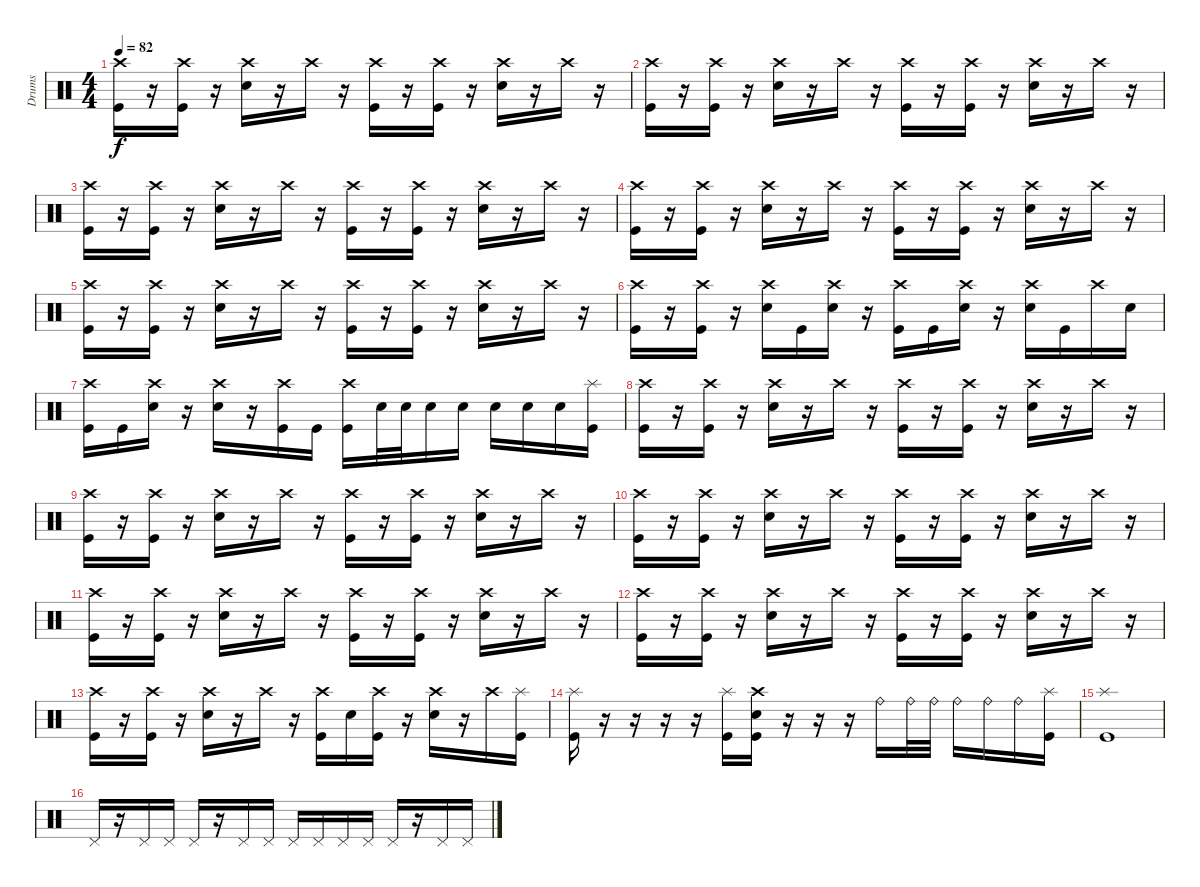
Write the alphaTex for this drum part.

\track ("Drums" "Drums") {instrument percussion}
\staff {score}
\articulation defaults
\ts (4 4)
\tempo 82
\clef neutral
\ks c
("Crash high (hit)" "Kick (hit)").16{dy f} r.16 ("Crash high (hit)" "Kick (hit)").16 r.16 ("Crash high (hit)" "Snare (hit) 2").16 r.16 "Crash high (hit)".16 r.16 ("Crash high (hit)" "Kick (hit)").16 r.16 ("Crash high (hit)" "Kick (hit)").16 r.16 ("Crash high (hit)" "Snare (hit) 2").16 r.16 "Crash high (hit)".16 r.16 |
("Crash high (hit)" "Kick (hit)").16 r.16 ("Crash high (hit)" "Kick (hit)").16 r.16 ("Crash high (hit)" "Snare (hit) 2").16 r.16 "Crash high (hit)".16 r.16 ("Crash high (hit)" "Kick (hit)").16 r.16 ("Crash high (hit)" "Kick (hit)").16 r.16 ("Crash high (hit)" "Snare (hit) 2").16 r.16 "Crash high (hit)".16 r.16 |
("Crash high (hit)" "Kick (hit)").16 r.16 ("Crash high (hit)" "Kick (hit)").16 r.16 ("Crash high (hit)" "Snare (hit) 2").16 r.16 "Crash high (hit)".16 r.16 ("Crash high (hit)" "Kick (hit)").16 r.16 ("Crash high (hit)" "Kick (hit)").16 r.16 ("Crash high (hit)" "Snare (hit) 2").16 r.16 "Crash high (hit)".16 r.16 |
("Crash high (hit)" "Kick (hit)").16 r.16 ("Crash high (hit)" "Kick (hit)").16 r.16 ("Crash high (hit)" "Snare (hit) 2").16 r.16 "Crash high (hit)".16 r.16 ("Crash high (hit)" "Kick (hit)").16 r.16 ("Crash high (hit)" "Kick (hit)").16 r.16 ("Crash high (hit)" "Snare (hit) 2").16 r.16 "Crash high (hit)".16 r.16 |
("Crash high (hit)" "Kick (hit)").16 r.16 ("Crash high (hit)" "Kick (hit)").16 r.16 ("Crash high (hit)" "Snare (hit) 2").16 r.16 "Crash high (hit)".16 r.16 ("Crash high (hit)" "Kick (hit)").16 r.16 ("Crash high (hit)" "Kick (hit)").16 r.16 ("Crash high (hit)" "Snare (hit) 2").16 r.16 "Crash high (hit)".16 r.16 |
("Crash high (hit)" "Kick (hit)").16 r.16 ("Crash high (hit)" "Kick (hit)").16 r.16 ("Crash high (hit)" "Snare (hit) 2").16 "Kick (hit)".16 ("Crash high (hit)" "Snare (hit) 2").16 r.16 ("Crash high (hit)" "Kick (hit)").16 "Kick (hit)".16 ("Crash high (hit)" "Snare (hit) 2").16 r.16 ("Crash high (hit)" "Snare (hit) 2").16 "Kick (hit)".16 "Crash high (hit)".16 "Snare (hit) 2".16 |
("Crash high (hit)" "Kick (hit)").16 "Kick (hit)".16 ("Crash high (hit)" "Snare (hit) 2").16 r.16 ("Crash high (hit)" "Snare (hit) 2").16 r.16 ("Crash high (hit)" "Kick (hit)").16 "Kick (hit)".16 ("Crash high (hit)" "Kick (hit)").16 "Snare (hit) 2".32 "Snare (hit) 2".32 "Snare (hit) 2".16 "Snare (hit) 2".16 "Snare (hit) 2".16 "Snare (hit) 2".16 "Snare (hit) 2".16 ("Splash (hit)" "Kick (hit)").16 |
("Crash high (hit)" "Kick (hit)").16 r.16 ("Crash high (hit)" "Kick (hit)").16 r.16 ("Crash high (hit)" "Snare (hit) 2").16 r.16 "Crash high (hit)".16 r.16 ("Crash high (hit)" "Kick (hit)").16 r.16 ("Crash high (hit)" "Kick (hit)").16 r.16 ("Crash high (hit)" "Snare (hit) 2").16 r.16 "Crash high (hit)".16 r.16 |
("Crash high (hit)" "Kick (hit)").16 r.16 ("Crash high (hit)" "Kick (hit)").16 r.16 ("Crash high (hit)" "Snare (hit) 2").16 r.16 "Crash high (hit)".16 r.16 ("Crash high (hit)" "Kick (hit)").16 r.16 ("Crash high (hit)" "Kick (hit)").16 r.16 ("Crash high (hit)" "Snare (hit) 2").16 r.16 "Crash high (hit)".16 r.16 |
("Crash high (hit)" "Kick (hit)").16 r.16 ("Crash high (hit)" "Kick (hit)").16 r.16 ("Crash high (hit)" "Snare (hit) 2").16 r.16 "Crash high (hit)".16 r.16 ("Crash high (hit)" "Kick (hit)").16 r.16 ("Crash high (hit)" "Kick (hit)").16 r.16 ("Crash high (hit)" "Snare (hit) 2").16 r.16 "Crash high (hit)".16 r.16 |
("Crash high (hit)" "Kick (hit)").16 r.16 ("Crash high (hit)" "Kick (hit)").16 r.16 ("Crash high (hit)" "Snare (hit) 2").16 r.16 "Crash high (hit)".16 r.16 ("Crash high (hit)" "Kick (hit)").16 r.16 ("Crash high (hit)" "Kick (hit)").16 r.16 ("Crash high (hit)" "Snare (hit) 2").16 r.16 "Crash high (hit)".16 r.16 |
("Crash high (hit)" "Kick (hit)").16 r.16 ("Crash high (hit)" "Kick (hit)").16 r.16 ("Crash high (hit)" "Snare (hit) 2").16 r.16 "Crash high (hit)".16 r.16 ("Crash high (hit)" "Kick (hit)").16 r.16 ("Crash high (hit)" "Kick (hit)").16 r.16 ("Crash high (hit)" "Snare (hit) 2").16 r.16 "Crash high (hit)".16 r.16 |
("Crash high (hit)" "Kick (hit)").16 r.16 ("Crash high (hit)" "Kick (hit)").16 r.16 ("Crash high (hit)" "Snare (hit) 2").16 r.16 "Crash high (hit)".16 r.16 ("Crash high (hit)" "Kick (hit)").16 "Snare (hit) 2".16 ("Crash high (hit)" "Kick (hit)").16 r.16 ("Crash high (hit)" "Snare (hit) 2").16 r.16 "Crash high (hit)".16 ("Splash (hit)" "Kick (hit)").16 |
("Splash (hit)" "Kick (hit)").16 r.16 r.16 r.16 r.16 ("Splash (hit)" "Kick (hit)").16 ("Crash high (hit)" "Snare (hit) 2" "Kick (hit)").16 r.16 r.16 r.16 "Ride (bell)".16 "Ride (bell)".32 "Ride (bell)".32 "Ride (bell)".16 "Ride (bell)".16 "Ride (bell)".16 ("Splash (hit)" "Kick (hit)").16 |
("Splash (hit)" "Kick (hit)").1 |
"Pedal Hi-Hat (hit)".16 r.16 "Pedal Hi-Hat (hit)".16 "Pedal Hi-Hat (hit)".16 "Pedal Hi-Hat (hit)".16 r.16 "Pedal Hi-Hat (hit)".16 "Pedal Hi-Hat (hit)".16 "Pedal Hi-Hat (hit)".16 "Pedal Hi-Hat (hit)".16 "Pedal Hi-Hat (hit)".16 "Pedal Hi-Hat (hit)".16 "Pedal Hi-Hat (hit)".16 r.16 "Pedal Hi-Hat (hit)".16 "Pedal Hi-Hat (hit)".16
